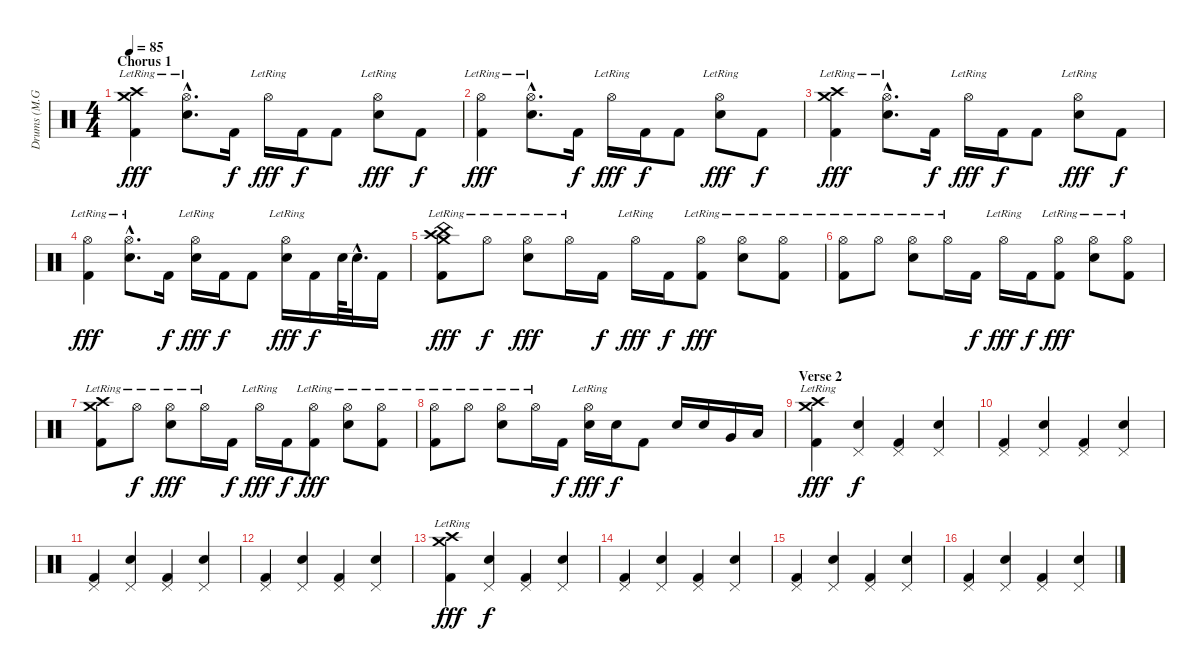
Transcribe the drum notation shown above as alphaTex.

\track ("Drums (M.Grosskopf)" "Drums (M.G") {instrument percussion}
\staff {score}
\articulation defaults
\ts (4 4)
\section ("" "Chorus 1")
\tempo 85
\clef neutral
\ks c
("Crash high (hit)"{lr} "Crash medium (hit)"{lr} "Kick (hit) 2").4{dy fff} ("Hi-Hat (open)"{hac lr} "Electric Snare (hit)"{hac}).8{d} "Kick (hit) 2".16{dy f} "Hi-Hat (open)"{lr}.16{dy fff} "Kick (hit) 2".16{dy f} "Kick (hit) 2".8 ("Hi-Hat (open)"{lr} "Electric Snare (hit)").8{dy fff} "Kick (hit) 2".8{dy f} |
("Hi-Hat (open)"{lr} "Kick (hit) 2").4{dy fff} ("Hi-Hat (open)"{hac lr} "Electric Snare (hit)"{hac}).8{d} "Kick (hit) 2".16{dy f} "Hi-Hat (open)"{lr}.16{dy fff} "Kick (hit) 2".16{dy f} "Kick (hit) 2".8 ("Hi-Hat (open)"{lr} "Electric Snare (hit)").8{dy fff} "Kick (hit) 2".8{dy f} |
("Crash high (hit)"{lr} "Crash medium (hit)"{lr} "Kick (hit) 2").4{dy fff} ("Hi-Hat (open)"{hac lr} "Electric Snare (hit)"{hac}).8{d} "Kick (hit) 2".16{dy f} "Hi-Hat (open)"{lr}.16{dy fff} "Kick (hit) 2".16{dy f} "Kick (hit) 2".8 ("Hi-Hat (open)"{lr} "Electric Snare (hit)").8{dy fff} "Kick (hit) 2".8{dy f} |
("Hi-Hat (open)"{lr} "Kick (hit) 2").4{dy fff} ("Hi-Hat (open)"{hac lr} "Electric Snare (hit)"{hac}).8{d} "Kick (hit) 2".16{dy f} ("Hi-Hat (open)"{lr} "Electric Snare (hit)").16{dy fff} "Kick (hit) 2".16{dy f} "Kick (hit) 2".8 ("Hi-Hat (open)"{lr} "Electric Snare (hit)").16{dy fff} "Kick (hit) 2".16{dy f} "Electric Snare (hit)".64 "Electric Snare (hit)"{hac}.32{d} "Kick (hit) 2".16 |
("Crash high (hit)"{lr} "Crash medium (hit)"{lr} "Kick (hit) 2" "China (hit)"{lr}).8{dy fff} "Hi-Hat (open)"{lr}.8{dy f} ("Hi-Hat (open)"{lr} "Electric Snare (hit)").8{dy fff} "Hi-Hat (open)"{lr}.16 "Kick (hit) 2".16{dy f} "Hi-Hat (open)"{lr}.16{dy fff} "Kick (hit) 2".16{dy f} ("Hi-Hat (open)"{lr} "Kick (hit) 2").8{dy fff} ("Hi-Hat (open)"{lr} "Electric Snare (hit)").8 ("Hi-Hat (open)"{lr} "Kick (hit) 2").8 |
("Hi-Hat (open)"{lr} "Kick (hit) 2").8 "Hi-Hat (open)"{lr}.8 ("Hi-Hat (open)"{lr} "Electric Snare (hit)").8 "Hi-Hat (open)"{lr}.16 "Kick (hit) 2".16{dy f} "Hi-Hat (open)"{lr}.16{dy fff} "Kick (hit) 2".16{dy f} ("Hi-Hat (open)"{lr} "Kick (hit) 2").8{dy fff} ("Hi-Hat (open)"{lr} "Electric Snare (hit)").8 ("Hi-Hat (open)"{lr} "Kick (hit) 2").8 |
("Crash high (hit)"{lr} "Crash medium (hit)"{lr} "Kick (hit) 2").8 "Hi-Hat (open)"{lr}.8{dy f} ("Hi-Hat (open)"{lr} "Electric Snare (hit)").8{dy fff} "Hi-Hat (open)"{lr}.16 "Kick (hit) 2".16{dy f} "Hi-Hat (open)"{lr}.16{dy fff} "Kick (hit) 2".16{dy f} ("Hi-Hat (open)"{lr} "Kick (hit) 2").8{dy fff} ("Hi-Hat (open)"{lr} "Electric Snare (hit)").8 ("Hi-Hat (open)"{lr} "Kick (hit) 2").8 |
("Hi-Hat (open)"{lr} "Kick (hit) 2").8 "Hi-Hat (open)"{lr}.8 ("Hi-Hat (open)"{lr} "Electric Snare (hit)").8 "Hi-Hat (open)"{lr}.16 "Kick (hit) 2".16{dy f} ("Hi-Hat (open)"{lr} "Electric Snare (hit)").16{dy fff} "Electric Snare (hit)".16{dy f} "Kick (hit) 2".8 "Electric Snare (hit)".16 "Electric Snare (hit)".16 "Very Low Tom (hit)".16 "Low Floor Tom (hit)".16 |
\section ("" "Verse 2")
("Crash high (hit)"{lr} "Crash medium (hit)"{lr} "Kick (hit) 2").4{dy fff} ("Pedal Hi-Hat (hit)" "Electric Snare (hit)").4{dy f} ("Pedal Hi-Hat (hit)" "Kick (hit) 2").4 ("Pedal Hi-Hat (hit)" "Electric Snare (hit)").4 |
("Pedal Hi-Hat (hit)" "Kick (hit) 2").4 ("Pedal Hi-Hat (hit)" "Electric Snare (hit)").4 ("Pedal Hi-Hat (hit)" "Kick (hit) 2").4 ("Pedal Hi-Hat (hit)" "Electric Snare (hit)").4 |
("Pedal Hi-Hat (hit)" "Kick (hit) 2").4 ("Pedal Hi-Hat (hit)" "Electric Snare (hit)").4 ("Pedal Hi-Hat (hit)" "Kick (hit) 2").4 ("Pedal Hi-Hat (hit)" "Electric Snare (hit)").4 |
("Pedal Hi-Hat (hit)" "Kick (hit) 2").4 ("Pedal Hi-Hat (hit)" "Electric Snare (hit)").4 ("Pedal Hi-Hat (hit)" "Kick (hit) 2").4 ("Pedal Hi-Hat (hit)" "Electric Snare (hit)").4 |
("Crash high (hit)"{lr} "Crash medium (hit)"{lr} "Kick (hit) 2").4{dy fff} ("Pedal Hi-Hat (hit)" "Electric Snare (hit)").4{dy f} ("Pedal Hi-Hat (hit)" "Kick (hit) 2").4 ("Pedal Hi-Hat (hit)" "Electric Snare (hit)").4 |
("Pedal Hi-Hat (hit)" "Kick (hit) 2").4 ("Pedal Hi-Hat (hit)" "Electric Snare (hit)").4 ("Pedal Hi-Hat (hit)" "Kick (hit) 2").4 ("Pedal Hi-Hat (hit)" "Electric Snare (hit)").4 |
("Pedal Hi-Hat (hit)" "Kick (hit) 2").4 ("Pedal Hi-Hat (hit)" "Electric Snare (hit)").4 ("Pedal Hi-Hat (hit)" "Kick (hit) 2").4 ("Pedal Hi-Hat (hit)" "Electric Snare (hit)").4 |
("Pedal Hi-Hat (hit)" "Kick (hit) 2").4 ("Pedal Hi-Hat (hit)" "Electric Snare (hit)").4 ("Pedal Hi-Hat (hit)" "Kick (hit) 2").4 ("Pedal Hi-Hat (hit)" "Electric Snare (hit)").4
